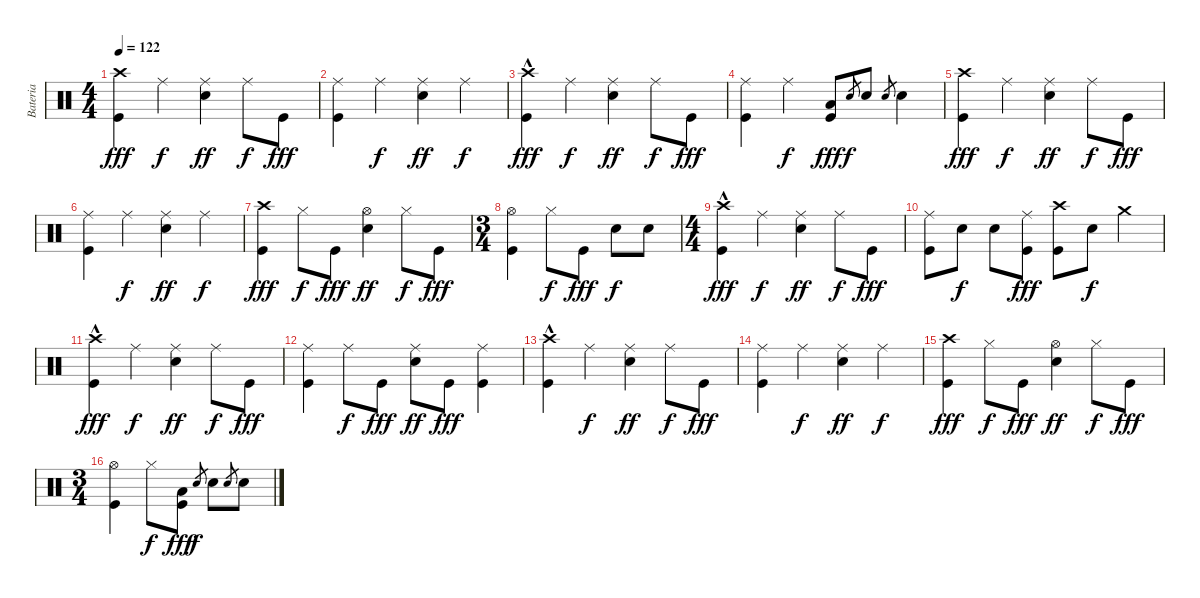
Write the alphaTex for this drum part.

\track ("Bateria" "Bateria") {instrument percussion}
\staff {score}
\articulation defaults
\ts (4 4)
\tempo 122
\clef neutral
\ks c
("Crash high (hit)" "Kick (hit)").4{dy fff} "Ride (middle)".4{dy f} ("Ride (middle)" "Snare (hit) 2").4{dy ff} "Ride (middle)".8{dy f} "Kick (hit)".8{dy fff} |
("Ride (middle)" "Kick (hit)").4 "Ride (middle)".4{dy f} ("Ride (middle)" "Snare (hit) 2").4{dy ff} "Ride (middle)".4{dy f} |
("Crash high (hit)"{hac} "Kick (hit)").4{dy fff} "Ride (middle)".4{dy f} ("Ride (middle)" "Snare (hit) 2").4{dy ff} "Ride (middle)".8{dy f} "Kick (hit)".8{dy fff} |
("Ride (middle)" "Kick (hit)").4 "Ride (middle)".4{dy f} ("Low Tom (hit)" "Kick (hit)").8{dy fff} "Snare (hit) 2".8{gr dy f} "Snare (hit) 2".8 "Snare (hit) 2".8{gr} "Snare (hit) 2".4 |
("Crash high (hit)" "Kick (hit)").4{dy fff} "Ride (middle)".4{dy f} ("Ride (middle)" "Snare (hit) 2").4{dy ff} "Ride (middle)".8{dy f} "Kick (hit)".8{dy fff} |
("Ride (middle)" "Kick (hit)").4 "Ride (middle)".4{dy f} ("Ride (middle)" "Snare (hit) 2").4{dy ff} "Ride (middle)".4{dy f} |
("Crash high (hit)" "Kick (hit)").4{dy fff} "Hi-Hat (closed)".8{dy f} "Kick (hit)".8{dy fff} ("Hi-Hat (open)" "Snare (hit) 2").4{dy ff} "Hi-Hat (closed)".8{dy f} "Kick (hit)".8{dy fff} |
\ts (3 4)
("Hi-Hat (open)" "Kick (hit)").4 "Hi-Hat (closed)".8{dy f} "Kick (hit)".8{dy fff} "Snare (hit) 2".8{dy f} "Snare (hit) 2".8 |
\ts (4 4)
("Crash high (hit)"{hac} "Kick (hit)").4{dy fff} "Ride (middle)".4{dy f} ("Ride (middle)" "Snare (hit) 2").4{dy ff} "Ride (middle)".8{dy f} "Kick (hit)".8{dy fff} |
("Ride (middle)" "Kick (hit)").8 "Snare (hit) 2".8{dy f} "Snare (hit) 2".8 ("Ride (middle)" "Kick (hit)").8{dy fff} ("Crash high (hit)" "Kick (hit)").8 "Snare (hit) 2".8{dy f} "Crash medium (hit)".4 |
("Crash high (hit)"{hac} "Kick (hit)").4{dy fff} "Ride (middle)".4{dy f} ("Ride (middle)" "Snare (hit) 2").4{dy ff} "Ride (middle)".8{dy f} "Kick (hit)".8{dy fff} |
("Ride (middle)" "Kick (hit)").4 "Ride (middle)".8{dy f} "Kick (hit)".8{dy fff} ("Ride (middle)" "Snare (hit) 2").8{dy ff} "Kick (hit)".8{dy fff} ("Ride (middle)" "Kick (hit)").4 |
("Crash high (hit)"{hac} "Kick (hit)").4 "Ride (middle)".4{dy f} ("Ride (middle)" "Snare (hit) 2").4{dy ff} "Ride (middle)".8{dy f} "Kick (hit)".8{dy fff} |
("Ride (middle)" "Kick (hit)").4 "Ride (middle)".4{dy f} ("Ride (middle)" "Snare (hit) 2").4{dy ff} "Ride (middle)".4{dy f} |
("Crash high (hit)" "Kick (hit)").4{dy fff} "Hi-Hat (closed)".8{dy f} "Kick (hit)".8{dy fff} ("Hi-Hat (open)" "Snare (hit) 2").4{dy ff} "Hi-Hat (closed)".8{dy f} "Kick (hit)".8{dy fff} |
\ts (3 4)
("Hi-Hat (open)" "Kick (hit)").4 "Hi-Hat (closed)".8{dy f} ("Low Tom (hit)" "Kick (hit)").8{dy fff} "Snare (hit) 2".8{gr dy f} "Snare (hit) 2".8 "Snare (hit) 2".8{gr} "Snare (hit) 2".8
